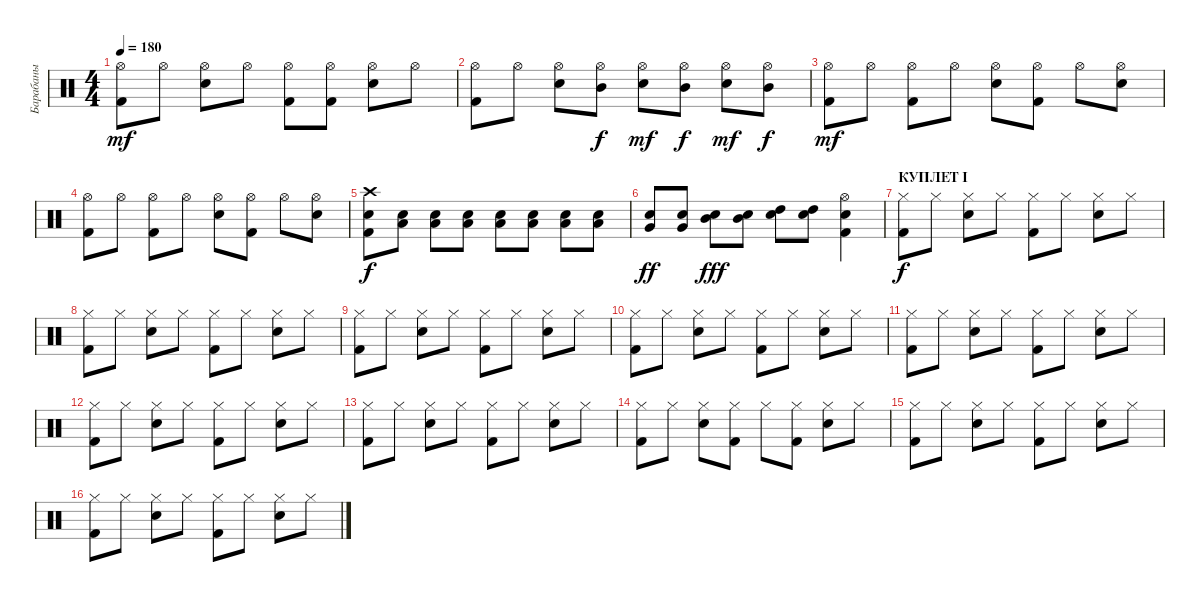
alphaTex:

\track ("Барабаны" "Барабаны") {instrument percussion}
\staff {score}
\articulation defaults
\ts (4 4)
\tempo 180
\clef neutral
\ks c
("Hi-Hat (open)" "Kick (hit) 2").8{dy mf} "Hi-Hat (open)".8 ("Hi-Hat (open)" "Snare (hit) 2").8 "Hi-Hat (open)".8 ("Hi-Hat (open)" "Kick (hit) 2").8 ("Hi-Hat (open)" "Kick (hit) 2").8 ("Hi-Hat (open)" "Snare (hit) 2").8 "Hi-Hat (open)".8 |
("Hi-Hat (open)" "Kick (hit) 2").8 "Hi-Hat (open)".8 ("Hi-Hat (open)" "Snare (hit) 2").8 ("Hi-Hat (open)" "Mid Tom (hit)").8{dy f} ("Hi-Hat (open)" "Snare (hit) 2").8{dy mf} ("Hi-Hat (open)" "Mid Tom (hit)").8{dy f} ("Hi-Hat (open)" "Snare (hit) 2").8{dy mf} ("Hi-Hat (open)" "Mid Tom (hit)").8{dy f} |
("Hi-Hat (open)" "Kick (hit) 2").8{dy mf} "Hi-Hat (open)".8 ("Hi-Hat (open)" "Kick (hit) 2").8 "Hi-Hat (open)".8 ("Hi-Hat (open)" "Snare (hit) 2").8 ("Hi-Hat (open)" "Kick (hit) 2").8 "Hi-Hat (open)".8 ("Hi-Hat (open)" "Snare (hit) 2").8 |
("Hi-Hat (open)" "Kick (hit) 2").8 "Hi-Hat (open)".8 ("Hi-Hat (open)" "Kick (hit) 2").8 "Hi-Hat (open)".8 ("Hi-Hat (open)" "Snare (hit) 2").8 ("Hi-Hat (open)" "Kick (hit) 2").8 "Hi-Hat (open)".8 ("Hi-Hat (open)" "Snare (hit) 2").8 |
("Crash high (hit)" "Snare (hit) 2" "Kick (hit) 2").8{dy f} ("Snare (hit) 2" "Low Floor Tom (hit)").8 ("Snare (hit) 2" "Low Floor Tom (hit)").8 ("Snare (hit) 2" "Low Floor Tom (hit)").8 ("Snare (hit) 2" "Low Floor Tom (hit)").8 ("Snare (hit) 2" "Low Floor Tom (hit)").8 ("Snare (hit) 2" "Low Floor Tom (hit)").8 ("Snare (hit) 2" "Low Floor Tom (hit)").8 |
("Snare (hit) 2" "Very Low Tom (hit)").8{dy ff} ("Snare (hit) 2" "Very Low Tom (hit)").8 ("Snare (hit) 2" "Mid Tom (hit)").8{dy fff} ("Snare (hit) 2" "Mid Tom (hit)").8 ("Snare (hit) 2" "High Tom (hit)").8 ("Snare (hit) 2" "High Tom (hit)").8 ("Hi-Hat (open)" "Snare (hit) 2" "Kick (hit) 2").4 |
\section ("" "КУПЛЕТ I")
("Hi-Hat (closed)" "Kick (hit) 2").8{dy f} "Hi-Hat (closed)".8 ("Hi-Hat (closed)" "Snare (hit) 2").8 "Hi-Hat (closed)".8 ("Hi-Hat (closed)" "Kick (hit) 2").8 "Hi-Hat (closed)".8 ("Hi-Hat (closed)" "Snare (hit) 2").8 "Hi-Hat (closed)".8 |
("Hi-Hat (closed)" "Kick (hit) 2").8 "Hi-Hat (closed)".8 ("Hi-Hat (closed)" "Snare (hit) 2").8 "Hi-Hat (closed)".8 ("Hi-Hat (closed)" "Kick (hit) 2").8 "Hi-Hat (closed)".8 ("Hi-Hat (closed)" "Snare (hit) 2").8 "Hi-Hat (closed)".8 |
("Hi-Hat (closed)" "Kick (hit) 2").8 "Hi-Hat (closed)".8 ("Hi-Hat (closed)" "Snare (hit) 2").8 "Hi-Hat (closed)".8 ("Hi-Hat (closed)" "Kick (hit) 2").8 "Hi-Hat (closed)".8 ("Hi-Hat (closed)" "Snare (hit) 2").8 "Hi-Hat (closed)".8 |
("Hi-Hat (closed)" "Kick (hit) 2").8 "Hi-Hat (closed)".8 ("Hi-Hat (closed)" "Snare (hit) 2").8 "Hi-Hat (closed)".8 ("Hi-Hat (closed)" "Kick (hit) 2").8 "Hi-Hat (closed)".8 ("Hi-Hat (closed)" "Snare (hit) 2").8 "Hi-Hat (closed)".8 |
("Hi-Hat (closed)" "Kick (hit) 2").8 "Hi-Hat (closed)".8 ("Hi-Hat (closed)" "Snare (hit) 2").8 "Hi-Hat (closed)".8 ("Hi-Hat (closed)" "Kick (hit) 2").8 "Hi-Hat (closed)".8 ("Hi-Hat (closed)" "Snare (hit) 2").8 "Hi-Hat (closed)".8 |
("Hi-Hat (closed)" "Kick (hit) 2").8 "Hi-Hat (closed)".8 ("Hi-Hat (closed)" "Snare (hit) 2").8 "Hi-Hat (closed)".8 ("Hi-Hat (closed)" "Kick (hit) 2").8 "Hi-Hat (closed)".8 ("Hi-Hat (closed)" "Snare (hit) 2").8 "Hi-Hat (closed)".8 |
("Hi-Hat (closed)" "Kick (hit) 2").8 "Hi-Hat (closed)".8 ("Hi-Hat (closed)" "Snare (hit) 2").8 "Hi-Hat (closed)".8 ("Hi-Hat (closed)" "Kick (hit) 2").8 "Hi-Hat (closed)".8 ("Hi-Hat (closed)" "Snare (hit) 2").8 "Hi-Hat (closed)".8 |
("Hi-Hat (closed)" "Kick (hit) 2").8 "Hi-Hat (closed)".8 ("Hi-Hat (closed)" "Snare (hit) 2").8 ("Hi-Hat (closed)" "Kick (hit) 2").8 "Hi-Hat (closed)".8 ("Hi-Hat (closed)" "Kick (hit) 2").8 ("Hi-Hat (closed)" "Snare (hit) 2").8 "Hi-Hat (closed)".8 |
("Hi-Hat (closed)" "Kick (hit) 2").8 "Hi-Hat (closed)".8 ("Hi-Hat (closed)" "Snare (hit) 2").8 "Hi-Hat (closed)".8 ("Hi-Hat (closed)" "Kick (hit) 2").8 "Hi-Hat (closed)".8 ("Hi-Hat (closed)" "Snare (hit) 2").8 "Hi-Hat (closed)".8 |
("Hi-Hat (closed)" "Kick (hit) 2").8 "Hi-Hat (closed)".8 ("Hi-Hat (closed)" "Snare (hit) 2").8 "Hi-Hat (closed)".8 ("Hi-Hat (closed)" "Kick (hit) 2").8 "Hi-Hat (closed)".8 ("Hi-Hat (closed)" "Snare (hit) 2").8 "Hi-Hat (closed)".8
